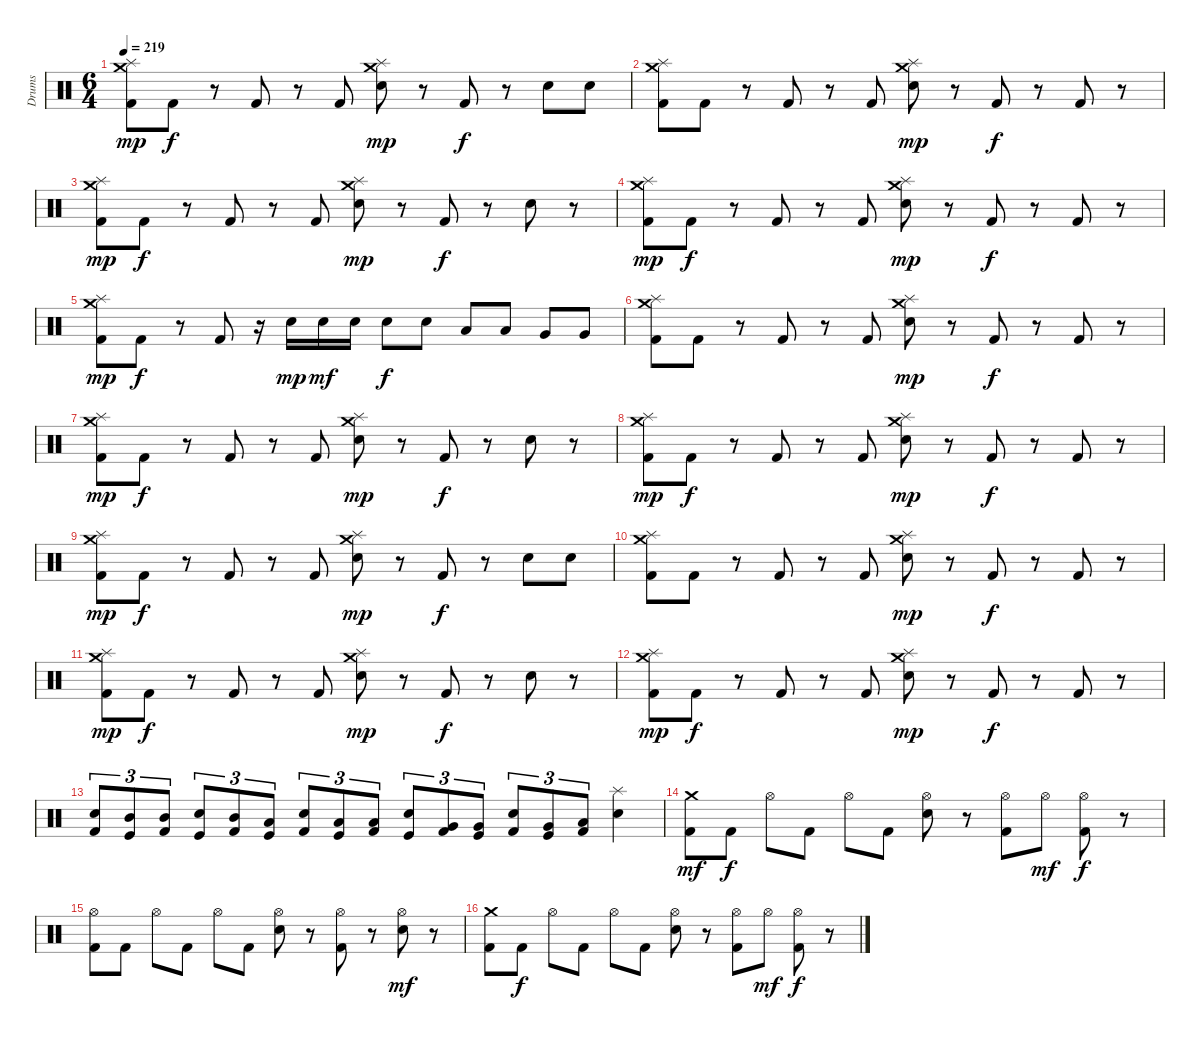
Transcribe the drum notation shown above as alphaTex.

\track ("Drums" "Drums") {instrument percussion}
\staff {score}
\articulation defaults
\ts (6 4)
\tempo 219
\clef neutral
\ks c
("Splash (hit)" "Crash medium (hit)" "Kick (hit) 2").8{dy mp} "Kick (hit) 2".8{dy f} r.8 "Kick (hit) 2".8 r.8 "Kick (hit) 2".8 ("Splash (hit)" "Crash medium (hit)" "Snare (hit) 2").8{dy mp} r.8 "Kick (hit) 2".8{dy f} r.8 "Snare (hit) 2".8 "Snare (hit) 2".8 |
("Splash (hit)" "Crash medium (hit)" "Kick (hit) 2").8 "Kick (hit) 2".8 r.8 "Kick (hit) 2".8 r.8 "Kick (hit) 2".8 ("Splash (hit)" "Crash medium (hit)" "Snare (hit) 2").8{dy mp} r.8 "Kick (hit) 2".8{dy f} r.8 "Kick (hit) 2".8 r.8 |
("Splash (hit)" "Crash medium (hit)" "Kick (hit) 2").8{dy mp} "Kick (hit) 2".8{dy f} r.8 "Kick (hit) 2".8 r.8 "Kick (hit) 2".8 ("Splash (hit)" "Crash medium (hit)" "Snare (hit) 2").8{dy mp} r.8 "Kick (hit) 2".8{dy f} r.8 "Snare (hit) 2".8 r.8 |
("Splash (hit)" "Crash medium (hit)" "Kick (hit) 2").8{dy mp} "Kick (hit) 2".8{dy f} r.8 "Kick (hit) 2".8 r.8 "Kick (hit) 2".8 ("Splash (hit)" "Crash medium (hit)" "Snare (hit) 2").8{dy mp} r.8 "Kick (hit) 2".8{dy f} r.8 "Kick (hit) 2".8 r.8 |
("Splash (hit)" "Crash medium (hit)" "Kick (hit) 2").8{dy mp} "Kick (hit) 2".8{dy f} r.8 "Kick (hit) 2".8 r.16 "Snare (hit) 2".16{dy mp} "Snare (hit) 2".16{dy mf} "Snare (hit) 2".16 "Snare (hit) 2".8{dy f} "Snare (hit) 2".8 "Low Tom (hit)".8 "Low Tom (hit)".8 "Very Low Tom (hit)".8 "Very Low Tom (hit)".8 |
("Splash (hit)" "Crash medium (hit)" "Kick (hit) 2").8 "Kick (hit) 2".8 r.8 "Kick (hit) 2".8 r.8 "Kick (hit) 2".8 ("Splash (hit)" "Crash medium (hit)" "Snare (hit) 2").8{dy mp} r.8 "Kick (hit) 2".8{dy f} r.8 "Kick (hit) 2".8 r.8 |
("Splash (hit)" "Crash medium (hit)" "Kick (hit) 2").8{dy mp} "Kick (hit) 2".8{dy f} r.8 "Kick (hit) 2".8 r.8 "Kick (hit) 2".8 ("Splash (hit)" "Crash medium (hit)" "Snare (hit) 2").8{dy mp} r.8 "Kick (hit) 2".8{dy f} r.8 "Snare (hit) 2".8 r.8 |
("Splash (hit)" "Crash medium (hit)" "Kick (hit) 2").8{dy mp} "Kick (hit) 2".8{dy f} r.8 "Kick (hit) 2".8 r.8 "Kick (hit) 2".8 ("Splash (hit)" "Crash medium (hit)" "Snare (hit) 2").8{dy mp} r.8 "Kick (hit) 2".8{dy f} r.8 "Kick (hit) 2".8 r.8 |
("Splash (hit)" "Crash medium (hit)" "Kick (hit) 2").8{dy mp} "Kick (hit) 2".8{dy f} r.8 "Kick (hit) 2".8 r.8 "Kick (hit) 2".8 ("Splash (hit)" "Crash medium (hit)" "Snare (hit) 2").8{dy mp} r.8 "Kick (hit) 2".8{dy f} r.8 "Snare (hit) 2".8 "Snare (hit) 2".8 |
("Splash (hit)" "Crash medium (hit)" "Kick (hit) 2").8 "Kick (hit) 2".8 r.8 "Kick (hit) 2".8 r.8 "Kick (hit) 2".8 ("Splash (hit)" "Crash medium (hit)" "Snare (hit) 2").8{dy mp} r.8 "Kick (hit) 2".8{dy f} r.8 "Kick (hit) 2".8 r.8 |
("Splash (hit)" "Crash medium (hit)" "Kick (hit) 2").8{dy mp} "Kick (hit) 2".8{dy f} r.8 "Kick (hit) 2".8 r.8 "Kick (hit) 2".8 ("Splash (hit)" "Crash medium (hit)" "Snare (hit) 2").8{dy mp} r.8 "Kick (hit) 2".8{dy f} r.8 "Snare (hit) 2".8 r.8 |
("Splash (hit)" "Crash medium (hit)" "Kick (hit) 2").8{dy mp} "Kick (hit) 2".8{dy f} r.8 "Kick (hit) 2".8 r.8 "Kick (hit) 2".8 ("Splash (hit)" "Crash medium (hit)" "Snare (hit) 2").8{dy mp} r.8 "Kick (hit) 2".8{dy f} r.8 "Kick (hit) 2".8 r.8 |
("Snare (hit) 2" "Kick (hit) 2").8{tu (3 2)} ("Mid Tom (hit)" "Kick (hit)").8{tu (3 2)} ("Mid Tom (hit)" "Kick (hit) 2").8{tu (3 2)} ("Snare (hit) 2" "Kick (hit)").8{tu (3 2)} ("Mid Tom (hit)" "Kick (hit) 2").8{tu (3 2)} ("Low Tom (hit)" "Kick (hit)").8{tu (3 2)} ("Snare (hit) 2" "Kick (hit) 2").8{tu (3 2)} ("Low Tom (hit)" "Kick (hit)").8{tu (3 2)} ("Low Tom (hit)" "Kick (hit) 2").8{tu (3 2)} ("Snare (hit) 2" "Kick (hit)").8{tu (3 2)} ("Very Low Tom (hit)" "Kick (hit) 2").8{tu (3 2)} ("Very Low Tom (hit)" "Kick (hit)").8{tu (3 2)} ("Snare (hit) 2" "Kick (hit) 2").8{tu (3 2)} ("Very Low Tom (hit)" "Kick (hit)").8{tu (3 2)} ("Low Floor Tom (hit)" "Kick (hit) 2").8{tu (3 2)} ("Splash (hit)" "Snare (hit) 2").4 |
("Crash medium (hit)" "Kick (hit) 2").8{dy mf} "Kick (hit) 2".8{dy f} "Hi-Hat (open)".8 "Kick (hit) 2".8 "Hi-Hat (open)".8 "Kick (hit) 2".8 ("Hi-Hat (open)" "Snare (hit) 2").8 r.8 ("Hi-Hat (open)" "Kick (hit) 2").8 "Hi-Hat (open)".8{dy mf} ("Hi-Hat (open)" "Kick (hit) 2").8{dy f} r.8 |
("Hi-Hat (open)" "Kick (hit) 2").8 "Kick (hit) 2".8 "Hi-Hat (open)".8 "Kick (hit) 2".8 "Hi-Hat (open)".8 "Kick (hit) 2".8 ("Hi-Hat (open)" "Snare (hit) 2").8 r.8 ("Hi-Hat (open)" "Kick (hit) 2").8 r.8 ("Hi-Hat (open)" "Snare (hit) 2").8{dy mf} r.8 |
("Crash medium (hit)" "Kick (hit) 2").8 "Kick (hit) 2".8{dy f} "Hi-Hat (open)".8 "Kick (hit) 2".8 "Hi-Hat (open)".8 "Kick (hit) 2".8 ("Hi-Hat (open)" "Snare (hit) 2").8 r.8 ("Hi-Hat (open)" "Kick (hit) 2").8 "Hi-Hat (open)".8{dy mf} ("Hi-Hat (open)" "Kick (hit) 2").8{dy f} r.8
